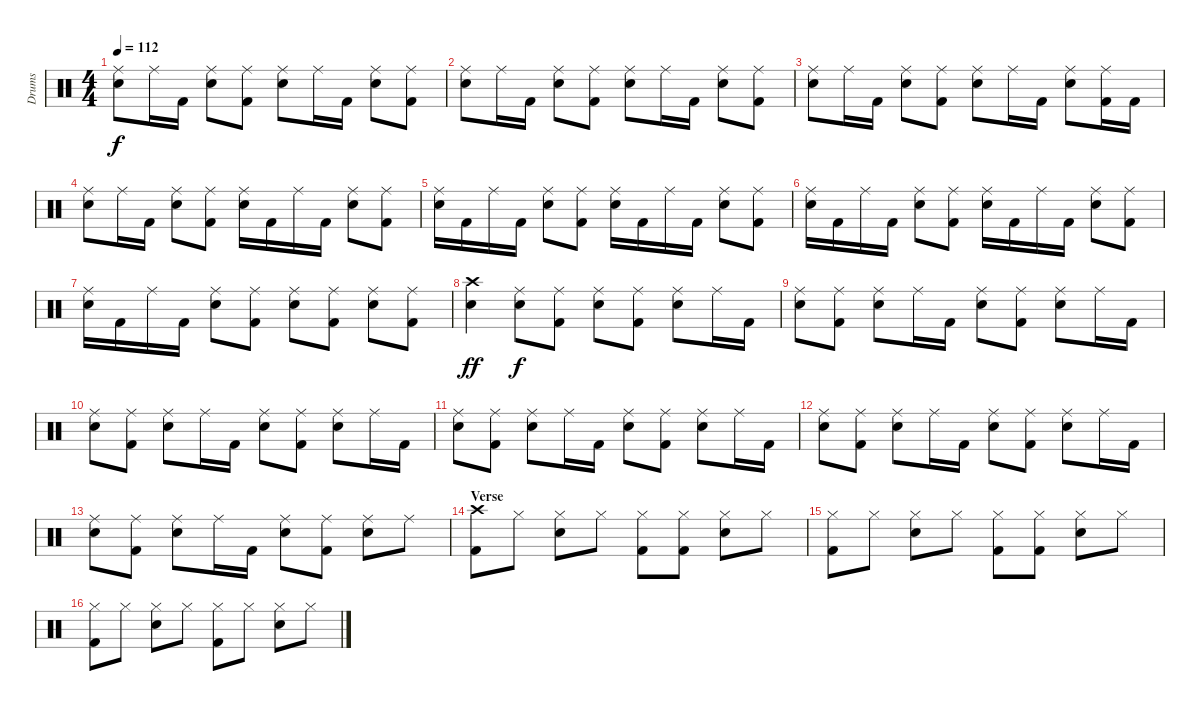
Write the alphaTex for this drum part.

\track ("Drums" "Drums") {instrument percussion}
\staff {score}
\articulation defaults
\ts (4 4)
\tempo 112
\clef neutral
\ks c
("Ride (middle)" "Electric Snare (hit)").8{dy f} "Ride (middle)".16 "Kick (hit) 2".16 ("Ride (middle)" "Electric Snare (hit)").8 ("Ride (middle)" "Kick (hit) 2").8 ("Ride (middle)" "Electric Snare (hit)").8 "Ride (middle)".16 "Kick (hit) 2".16 ("Ride (middle)" "Electric Snare (hit)").8 ("Ride (middle)" "Kick (hit) 2").8 |
("Ride (middle)" "Electric Snare (hit)").8 "Ride (middle)".16 "Kick (hit) 2".16 ("Ride (middle)" "Electric Snare (hit)").8 ("Ride (middle)" "Kick (hit) 2").8 ("Ride (middle)" "Electric Snare (hit)").8 "Ride (middle)".16 "Kick (hit) 2".16 ("Ride (middle)" "Electric Snare (hit)").8 ("Ride (middle)" "Kick (hit) 2").8 |
("Ride (middle)" "Electric Snare (hit)").8 "Ride (middle)".16 "Kick (hit) 2".16 ("Ride (middle)" "Electric Snare (hit)").8 ("Ride (middle)" "Kick (hit) 2").8 ("Ride (middle)" "Electric Snare (hit)").8 "Ride (middle)".16 "Kick (hit) 2".16 ("Ride (middle)" "Electric Snare (hit)").8 ("Ride (middle)" "Kick (hit) 2").16 "Kick (hit) 2".16 |
("Ride (middle)" "Electric Snare (hit)").8 "Ride (middle)".16 "Kick (hit) 2".16 ("Ride (middle)" "Electric Snare (hit)").8 ("Ride (middle)" "Kick (hit) 2").8 ("Ride (middle)" "Electric Snare (hit)").16 "Kick (hit) 2".16 "Ride (middle)".16 "Kick (hit) 2".16 ("Ride (middle)" "Electric Snare (hit)").8 ("Ride (middle)" "Kick (hit) 2").8 |
("Ride (middle)" "Electric Snare (hit)").16 "Kick (hit) 2".16 "Ride (middle)".16 "Kick (hit) 2".16 ("Ride (middle)" "Electric Snare (hit)").8 ("Ride (middle)" "Kick (hit) 2").8 ("Ride (middle)" "Electric Snare (hit)").16 "Kick (hit) 2".16 "Ride (middle)".16 "Kick (hit) 2".16 ("Ride (middle)" "Electric Snare (hit)").8 ("Ride (middle)" "Kick (hit) 2").8 |
("Ride (middle)" "Electric Snare (hit)").16 "Kick (hit) 2".16 "Ride (middle)".16 "Kick (hit) 2".16 ("Ride (middle)" "Electric Snare (hit)").8 ("Ride (middle)" "Kick (hit) 2").8 ("Ride (middle)" "Electric Snare (hit)").16 "Kick (hit) 2".16 "Ride (middle)".16 "Kick (hit) 2".16 ("Ride (middle)" "Electric Snare (hit)").8 ("Ride (middle)" "Kick (hit) 2").8 |
("Ride (middle)" "Electric Snare (hit)").16 "Kick (hit) 2".16 "Ride (middle)".16 "Kick (hit) 2".16 ("Ride (middle)" "Electric Snare (hit)").8 ("Ride (middle)" "Kick (hit) 2").8 ("Ride (middle)" "Electric Snare (hit)").8 ("Ride (middle)" "Kick (hit) 2").8 ("Ride (middle)" "Electric Snare (hit)").8 ("Ride (middle)" "Kick (hit) 2").8 |
("Crash high (hit)" "Electric Snare (hit)").4{dy ff} ("Ride (middle)" "Electric Snare (hit)").8{dy f} ("Ride (middle)" "Kick (hit) 2").8 ("Ride (middle)" "Electric Snare (hit)").8 ("Ride (middle)" "Kick (hit) 2").8 ("Ride (middle)" "Electric Snare (hit)").8 "Ride (middle)".16 "Kick (hit) 2".16 |
("Ride (middle)" "Electric Snare (hit)").8 ("Ride (middle)" "Kick (hit) 2").8 ("Ride (middle)" "Electric Snare (hit)").8 "Ride (middle)".16 "Kick (hit) 2".16 ("Ride (middle)" "Electric Snare (hit)").8 ("Ride (middle)" "Kick (hit) 2").8 ("Ride (middle)" "Electric Snare (hit)").8 "Ride (middle)".16 "Kick (hit) 2".16 |
("Ride (middle)" "Electric Snare (hit)").8 ("Ride (middle)" "Kick (hit) 2").8 ("Ride (middle)" "Electric Snare (hit)").8 "Ride (middle)".16 "Kick (hit) 2".16 ("Ride (middle)" "Electric Snare (hit)").8 ("Ride (middle)" "Kick (hit) 2").8 ("Ride (middle)" "Electric Snare (hit)").8 "Ride (middle)".16 "Kick (hit) 2".16 |
("Ride (middle)" "Electric Snare (hit)").8 ("Ride (middle)" "Kick (hit) 2").8 ("Ride (middle)" "Electric Snare (hit)").8 "Ride (middle)".16 "Kick (hit) 2".16 ("Ride (middle)" "Electric Snare (hit)").8 ("Ride (middle)" "Kick (hit) 2").8 ("Ride (middle)" "Electric Snare (hit)").8 "Ride (middle)".16 "Kick (hit) 2".16 |
("Ride (middle)" "Electric Snare (hit)").8 ("Ride (middle)" "Kick (hit) 2").8 ("Ride (middle)" "Electric Snare (hit)").8 "Ride (middle)".16 "Kick (hit) 2".16 ("Ride (middle)" "Electric Snare (hit)").8 ("Ride (middle)" "Kick (hit) 2").8 ("Ride (middle)" "Electric Snare (hit)").8 "Ride (middle)".16 "Kick (hit) 2".16 |
("Ride (middle)" "Electric Snare (hit)").8 ("Ride (middle)" "Kick (hit) 2").8 ("Ride (middle)" "Electric Snare (hit)").8 "Ride (middle)".16 "Kick (hit) 2".16 ("Ride (middle)" "Electric Snare (hit)").8 ("Ride (middle)" "Kick (hit) 2").8 ("Ride (middle)" "Electric Snare (hit)").8 "Ride (middle)".8 |
\section ("" "Verse")
("Crash high (hit)" "Kick (hit) 2").8 "Hi-Hat (closed)".8 ("Hi-Hat (closed)" "Electric Snare (hit)").8 "Hi-Hat (closed)".8 ("Hi-Hat (closed)" "Kick (hit) 2").8 ("Hi-Hat (closed)" "Kick (hit) 2").8 ("Hi-Hat (closed)" "Electric Snare (hit)").8 "Hi-Hat (closed)".8 |
("Hi-Hat (closed)" "Kick (hit) 2").8 "Hi-Hat (closed)".8 ("Hi-Hat (closed)" "Electric Snare (hit)").8 "Hi-Hat (closed)".8 ("Hi-Hat (closed)" "Kick (hit) 2").8 ("Hi-Hat (closed)" "Kick (hit) 2").8 ("Hi-Hat (closed)" "Electric Snare (hit)").8 "Hi-Hat (closed)".8 |
("Hi-Hat (closed)" "Kick (hit) 2").8 "Hi-Hat (closed)".8 ("Hi-Hat (closed)" "Electric Snare (hit)").8 "Hi-Hat (closed)".8 ("Hi-Hat (closed)" "Kick (hit) 2").8 "Hi-Hat (closed)".8 ("Hi-Hat (closed)" "Electric Snare (hit)").8 "Hi-Hat (closed)".8
